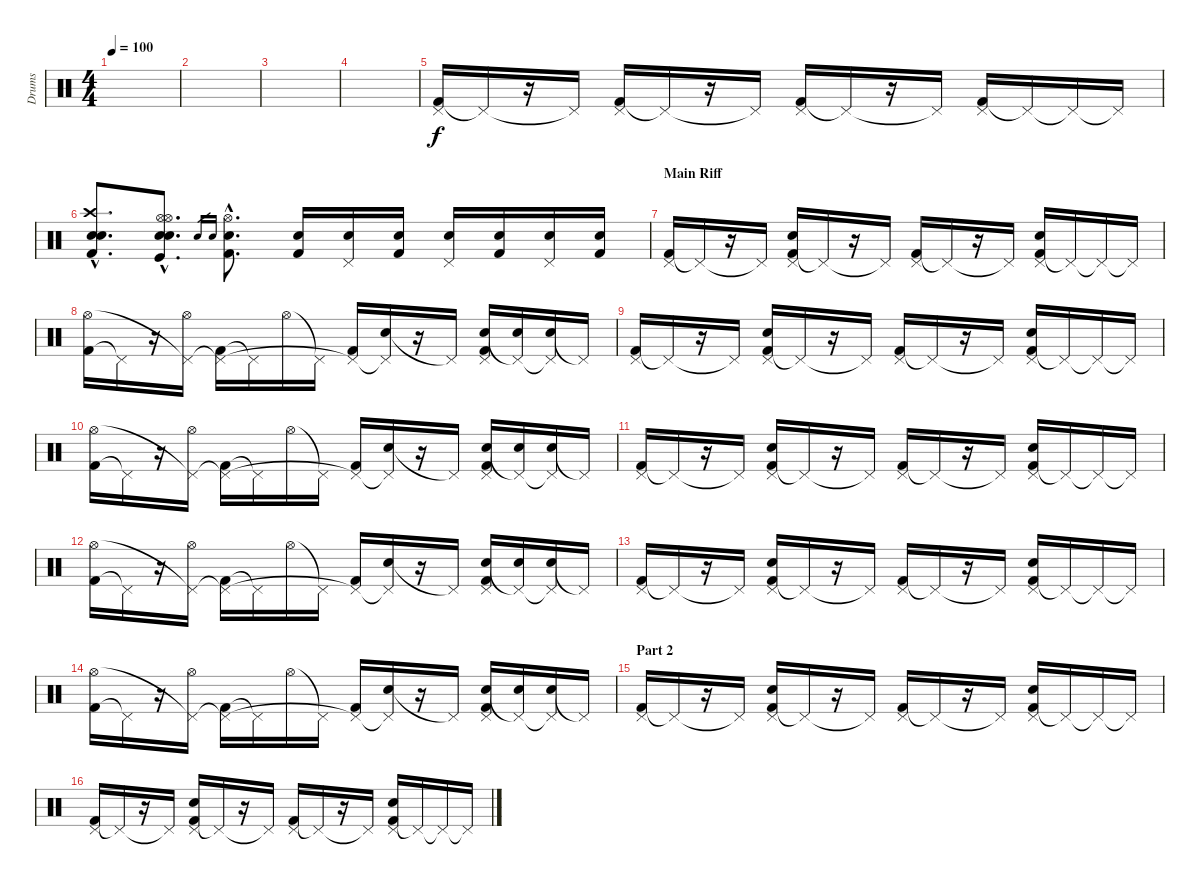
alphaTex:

\track ("Drums" "Drums") {instrument percussion}
\staff {score}
\articulation defaults
\ts (4 4)
\tempo 100
\clef neutral
\ks c
|
|
|
|
("Kick (hit) 2" "Pedal Hi-Hat (hit)").16 "Pedal Hi-Hat (hit)"{t}.16 r.16 "Pedal Hi-Hat (hit)"{t}.16 ("Kick (hit) 2" "Pedal Hi-Hat (hit)").16 "Pedal Hi-Hat (hit)"{t}.16 r.16 "Pedal Hi-Hat (hit)"{t}.16 ("Kick (hit) 2" "Pedal Hi-Hat (hit)").16 "Pedal Hi-Hat (hit)"{t}.16 r.16 "Pedal Hi-Hat (hit)"{t}.16 ("Kick (hit) 2" "Pedal Hi-Hat (hit)").16 "Pedal Hi-Hat (hit)"{t}.16 "Pedal Hi-Hat (hit)"{t}.16 "Pedal Hi-Hat (hit)"{t}.16 |
("Crash high (hit)"{hac} "Snare (hit) 2"{hac} "Kick (hit) 2"{hac} "Electric Snare (hit)"{hac}).8{d} ("Hi-Hat (open)"{hac} "Hi-Hat (open)"{hac} "Snare (hit) 2"{hac} "Kick (hit)"{hac} "Snare (hit) 2"{hac}).8{d} "Snare (hit) 2".16{gr} "Electric Snare (hit)".16{gr} ("Hi-Hat (open)"{hac} "Kick (hit) 2"{hac} "Snare (hit) 2"{hac}).8{d} ("Kick (hit) 2" "Snare (hit) 2").16 ("Pedal Hi-Hat (hit)" "Snare (hit) 2").16 ("Kick (hit) 2" "Snare (hit) 2").16 ("Pedal Hi-Hat (hit)" "Snare (hit) 2").16 ("Kick (hit) 2" "Snare (hit) 2").16 ("Pedal Hi-Hat (hit)" "Snare (hit) 2").16 ("Kick (hit) 2" "Snare (hit) 2").16 |
\section ("" "Main Riff")
("Kick (hit) 2" "Pedal Hi-Hat (hit)").16 "Pedal Hi-Hat (hit)"{t}.16 r.16 "Pedal Hi-Hat (hit)"{t}.16 ("Kick (hit) 2" "Snare (hit) 2" "Pedal Hi-Hat (hit)").16 "Pedal Hi-Hat (hit)"{t}.16 r.16 "Pedal Hi-Hat (hit)"{t}.16 ("Kick (hit) 2" "Pedal Hi-Hat (hit)").16 "Pedal Hi-Hat (hit)"{t}.16 r.16 "Pedal Hi-Hat (hit)"{t}.16 ("Kick (hit) 2" "Snare (hit) 2" "Pedal Hi-Hat (hit)").16 "Pedal Hi-Hat (hit)"{t}.16 "Pedal Hi-Hat (hit)"{t}.16 "Pedal Hi-Hat (hit)"{t}.16 |
("Kick (hit) 2" "Hi-Hat (open)").16 "Pedal Hi-Hat (hit)"{t}.16 r.16 ("Hi-Hat (open)" "Pedal Hi-Hat (hit)"{t}).16 ("Kick (hit) 2" "Pedal Hi-Hat (hit)"{t}).16 "Pedal Hi-Hat (hit)"{t}.16 "Hi-Hat (open)".16 "Pedal Hi-Hat (hit)"{t}.16 ("Kick (hit) 2" "Pedal Hi-Hat (hit)"{t}).16 ("Snare (hit) 2" "Pedal Hi-Hat (hit)"{t}).16 r.16 "Pedal Hi-Hat (hit)"{t}.16 ("Kick (hit) 2" "Snare (hit) 2" "Pedal Hi-Hat (hit)").16 ("Snare (hit) 2" "Pedal Hi-Hat (hit)"{t}).16 ("Snare (hit) 2" "Pedal Hi-Hat (hit)"{t}).16 "Pedal Hi-Hat (hit)"{t}.16 |
("Kick (hit) 2" "Pedal Hi-Hat (hit)").16 "Pedal Hi-Hat (hit)"{t}.16 r.16 "Pedal Hi-Hat (hit)"{t}.16 ("Kick (hit) 2" "Snare (hit) 2" "Pedal Hi-Hat (hit)").16 "Pedal Hi-Hat (hit)"{t}.16 r.16 "Pedal Hi-Hat (hit)"{t}.16 ("Kick (hit) 2" "Pedal Hi-Hat (hit)").16 "Pedal Hi-Hat (hit)"{t}.16 r.16 "Pedal Hi-Hat (hit)"{t}.16 ("Kick (hit) 2" "Snare (hit) 2" "Pedal Hi-Hat (hit)").16 "Pedal Hi-Hat (hit)"{t}.16 "Pedal Hi-Hat (hit)"{t}.16 "Pedal Hi-Hat (hit)"{t}.16 |
("Kick (hit) 2" "Hi-Hat (open)").16 "Pedal Hi-Hat (hit)"{t}.16 r.16 ("Hi-Hat (open)" "Pedal Hi-Hat (hit)"{t}).16 ("Kick (hit) 2" "Pedal Hi-Hat (hit)"{t}).16 "Pedal Hi-Hat (hit)"{t}.16 "Hi-Hat (open)".16 "Pedal Hi-Hat (hit)"{t}.16 ("Kick (hit) 2" "Pedal Hi-Hat (hit)"{t}).16 ("Snare (hit) 2" "Pedal Hi-Hat (hit)"{t}).16 r.16 "Pedal Hi-Hat (hit)"{t}.16 ("Kick (hit) 2" "Snare (hit) 2" "Pedal Hi-Hat (hit)").16 ("Snare (hit) 2" "Pedal Hi-Hat (hit)"{t}).16 ("Snare (hit) 2" "Pedal Hi-Hat (hit)"{t}).16 "Pedal Hi-Hat (hit)"{t}.16 |
("Kick (hit) 2" "Pedal Hi-Hat (hit)").16 "Pedal Hi-Hat (hit)"{t}.16 r.16 "Pedal Hi-Hat (hit)"{t}.16 ("Kick (hit) 2" "Snare (hit) 2" "Pedal Hi-Hat (hit)").16 "Pedal Hi-Hat (hit)"{t}.16 r.16 "Pedal Hi-Hat (hit)"{t}.16 ("Kick (hit) 2" "Pedal Hi-Hat (hit)").16 "Pedal Hi-Hat (hit)"{t}.16 r.16 "Pedal Hi-Hat (hit)"{t}.16 ("Kick (hit) 2" "Snare (hit) 2" "Pedal Hi-Hat (hit)").16 "Pedal Hi-Hat (hit)"{t}.16 "Pedal Hi-Hat (hit)"{t}.16 "Pedal Hi-Hat (hit)"{t}.16 |
("Kick (hit) 2" "Hi-Hat (open)").16 "Pedal Hi-Hat (hit)"{t}.16 r.16 ("Hi-Hat (open)" "Pedal Hi-Hat (hit)"{t}).16 ("Kick (hit) 2" "Pedal Hi-Hat (hit)"{t}).16 "Pedal Hi-Hat (hit)"{t}.16 "Hi-Hat (open)".16 "Pedal Hi-Hat (hit)"{t}.16 ("Kick (hit) 2" "Pedal Hi-Hat (hit)"{t}).16 ("Snare (hit) 2" "Pedal Hi-Hat (hit)"{t}).16 r.16 "Pedal Hi-Hat (hit)"{t}.16 ("Kick (hit) 2" "Snare (hit) 2" "Pedal Hi-Hat (hit)").16 ("Snare (hit) 2" "Pedal Hi-Hat (hit)"{t}).16 ("Snare (hit) 2" "Pedal Hi-Hat (hit)"{t}).16 "Pedal Hi-Hat (hit)"{t}.16 |
("Kick (hit) 2" "Pedal Hi-Hat (hit)").16 "Pedal Hi-Hat (hit)"{t}.16 r.16 "Pedal Hi-Hat (hit)"{t}.16 ("Kick (hit) 2" "Snare (hit) 2" "Pedal Hi-Hat (hit)").16 "Pedal Hi-Hat (hit)"{t}.16 r.16 "Pedal Hi-Hat (hit)"{t}.16 ("Kick (hit) 2" "Pedal Hi-Hat (hit)").16 "Pedal Hi-Hat (hit)"{t}.16 r.16 "Pedal Hi-Hat (hit)"{t}.16 ("Kick (hit) 2" "Snare (hit) 2" "Pedal Hi-Hat (hit)").16 "Pedal Hi-Hat (hit)"{t}.16 "Pedal Hi-Hat (hit)"{t}.16 "Pedal Hi-Hat (hit)"{t}.16 |
("Kick (hit) 2" "Hi-Hat (open)").16 "Pedal Hi-Hat (hit)"{t}.16 r.16 ("Hi-Hat (open)" "Pedal Hi-Hat (hit)"{t}).16 ("Kick (hit) 2" "Pedal Hi-Hat (hit)"{t}).16 "Pedal Hi-Hat (hit)"{t}.16 "Hi-Hat (open)".16 "Pedal Hi-Hat (hit)"{t}.16 ("Kick (hit) 2" "Pedal Hi-Hat (hit)"{t}).16 ("Snare (hit) 2" "Pedal Hi-Hat (hit)"{t}).16 r.16 "Pedal Hi-Hat (hit)"{t}.16 ("Kick (hit) 2" "Snare (hit) 2" "Pedal Hi-Hat (hit)").16 ("Snare (hit) 2" "Pedal Hi-Hat (hit)"{t}).16 ("Snare (hit) 2" "Pedal Hi-Hat (hit)"{t}).16 "Pedal Hi-Hat (hit)"{t}.16 |
\section ("" "Part 2")
("Kick (hit) 2" "Pedal Hi-Hat (hit)").16 "Pedal Hi-Hat (hit)"{t}.16 r.16 "Pedal Hi-Hat (hit)"{t}.16 ("Kick (hit) 2" "Snare (hit) 2" "Pedal Hi-Hat (hit)").16 "Pedal Hi-Hat (hit)"{t}.16 r.16 "Pedal Hi-Hat (hit)"{t}.16 ("Kick (hit) 2" "Pedal Hi-Hat (hit)").16 "Pedal Hi-Hat (hit)"{t}.16 r.16 "Pedal Hi-Hat (hit)"{t}.16 ("Kick (hit) 2" "Snare (hit) 2" "Pedal Hi-Hat (hit)").16 "Pedal Hi-Hat (hit)"{t}.16 "Pedal Hi-Hat (hit)"{t}.16 "Pedal Hi-Hat (hit)"{t}.16 |
("Kick (hit) 2" "Pedal Hi-Hat (hit)").16 "Pedal Hi-Hat (hit)"{t}.16 r.16 "Pedal Hi-Hat (hit)"{t}.16 ("Kick (hit) 2" "Snare (hit) 2" "Pedal Hi-Hat (hit)").16 "Pedal Hi-Hat (hit)"{t}.16 r.16 "Pedal Hi-Hat (hit)"{t}.16 ("Kick (hit) 2" "Pedal Hi-Hat (hit)").16 "Pedal Hi-Hat (hit)"{t}.16 r.16 "Pedal Hi-Hat (hit)"{t}.16 ("Kick (hit) 2" "Snare (hit) 2" "Pedal Hi-Hat (hit)").16 "Pedal Hi-Hat (hit)"{t}.16 "Pedal Hi-Hat (hit)"{t}.16 "Pedal Hi-Hat (hit)"{t}.16
